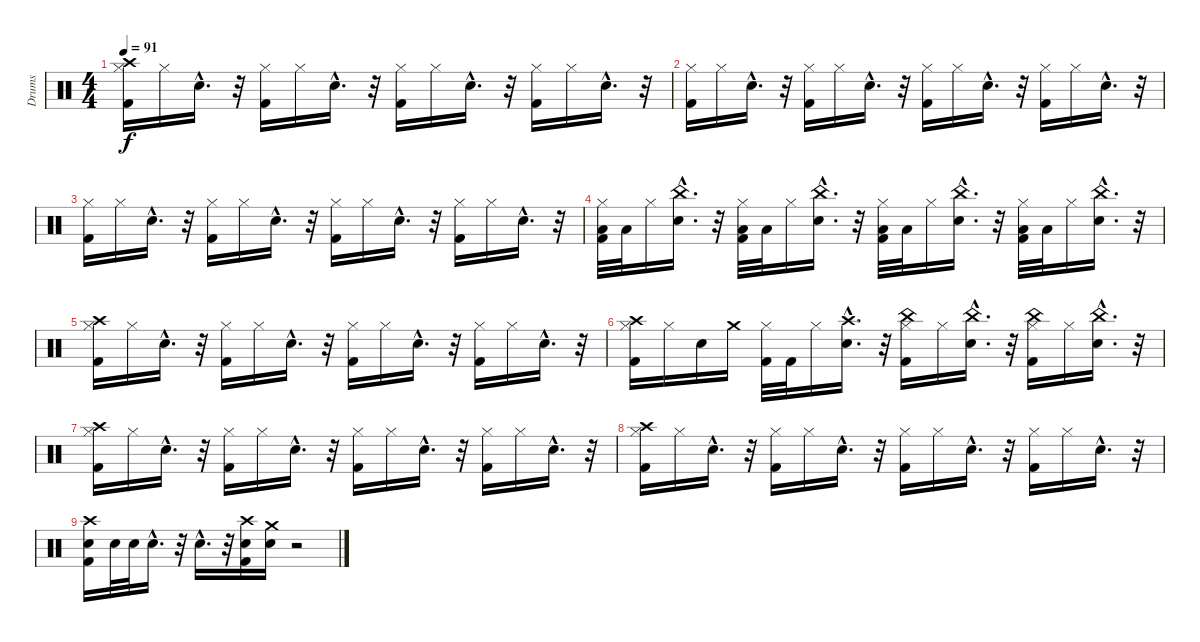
\track ("Drums" "Drums") {instrument percussion}
\staff {score}
\articulation defaults
\ts (4 4)
\tempo 91
\clef neutral
\ks c
("Crash high (hit)" "Kick (hit) 2" "Hi-Hat (closed)").16{dy f} "Hi-Hat (closed)".16 "Snare (hit) 2"{hac}.16{d} r.32 ("Kick (hit) 2" "Hi-Hat (closed)").16 "Hi-Hat (closed)".16 "Snare (hit) 2"{hac}.16{d} r.32 ("Kick (hit) 2" "Hi-Hat (closed)").16 "Hi-Hat (closed)".16 "Snare (hit) 2"{hac}.16{d} r.32 ("Kick (hit) 2" "Hi-Hat (closed)").16 "Hi-Hat (closed)".16 "Snare (hit) 2"{hac}.16{d} r.32 |
("Kick (hit) 2" "Hi-Hat (closed)").16 "Hi-Hat (closed)".16 "Snare (hit) 2"{hac}.16{d} r.32 ("Kick (hit) 2" "Hi-Hat (closed)").16 "Hi-Hat (closed)".16 "Snare (hit) 2"{hac}.16{d} r.32 ("Kick (hit) 2" "Hi-Hat (closed)").16 "Hi-Hat (closed)".16 "Snare (hit) 2"{hac}.16{d} r.32 ("Kick (hit) 2" "Hi-Hat (closed)").16 "Hi-Hat (closed)".16 "Snare (hit) 2"{hac}.16{d} r.32 |
("Kick (hit) 2" "Hi-Hat (closed)").16 "Hi-Hat (closed)".16 "Snare (hit) 2"{hac}.16{d} r.32 ("Kick (hit) 2" "Hi-Hat (closed)").16 "Hi-Hat (closed)".16 "Snare (hit) 2"{hac}.16{d} r.32 ("Kick (hit) 2" "Hi-Hat (closed)").16 "Hi-Hat (closed)".16 "Snare (hit) 2"{hac}.16{d} r.32 ("Kick (hit) 2" "Hi-Hat (closed)").16 "Hi-Hat (closed)".16 "Snare (hit) 2"{hac}.16{d} r.32 |
("Low Floor Tom (hit)" "Kick (hit) 2" "Hi-Hat (closed)").32 "Low Floor Tom (hit)".32 "Hi-Hat (closed)".16 ("Snare (hit) 2"{hac} "China (hit)"{hac}).16{d} r.32 ("Low Floor Tom (hit)" "Kick (hit) 2" "Hi-Hat (closed)").32 "Low Floor Tom (hit)".32 "Hi-Hat (closed)".16 ("China (hit)"{hac} "Snare (hit) 2"{hac}).16{d} r.32 ("Low Floor Tom (hit)" "Kick (hit) 2" "Hi-Hat (closed)").32 "Low Floor Tom (hit)".32 "Hi-Hat (closed)".16 ("China (hit)"{hac} "Snare (hit) 2"{hac}).16{d} r.32 ("Low Floor Tom (hit)" "Kick (hit) 2" "Hi-Hat (closed)").32 "Low Floor Tom (hit)".32 "Hi-Hat (closed)".16 ("China (hit)"{hac} "Snare (hit) 2"{hac}).16{d} r.32 |
("Crash high (hit)" "Kick (hit) 2" "Hi-Hat (closed)").16 "Hi-Hat (closed)".16 "Snare (hit) 2"{hac}.16{d} r.32 ("Kick (hit) 2" "Hi-Hat (closed)").16 "Hi-Hat (closed)".16 "Snare (hit) 2"{hac}.16{d} r.32 ("Kick (hit) 2" "Hi-Hat (closed)").16 "Hi-Hat (closed)".16 "Snare (hit) 2"{hac}.16{d} r.32 ("Kick (hit) 2" "Hi-Hat (closed)").16 "Hi-Hat (closed)".16 "Snare (hit) 2"{hac}.16{d} r.32 |
("Crash high (hit)" "Kick (hit) 2" "Hi-Hat (closed)").16 "Hi-Hat (closed)".16 "Snare (hit) 2".16 "Crash medium (hit)".16 ("Hi-Hat (closed)" "Kick (hit) 2").32 "Kick (hit) 2".32 "Hi-Hat (closed)".16 ("Crash high (hit)"{hac} "Snare (hit) 2"{hac}).16{d} r.32 ("China (hit)" "Kick (hit) 2" "Hi-Hat (closed)").16 "Hi-Hat (closed)".16 ("China (hit)"{hac} "Snare (hit) 2"{hac}).16{d} r.32 ("China (hit)" "Kick (hit) 2" "Hi-Hat (closed)").16 "Hi-Hat (closed)".16 ("China (hit)"{hac} "Snare (hit) 2"{hac}).16{d} r.32 |
("Crash high (hit)" "Kick (hit) 2" "Hi-Hat (closed)").16 "Hi-Hat (closed)".16 "Snare (hit) 2"{hac}.16{d} r.32 ("Kick (hit) 2" "Hi-Hat (closed)").16 "Hi-Hat (closed)".16 "Snare (hit) 2"{hac}.16{d} r.32 ("Kick (hit) 2" "Hi-Hat (closed)").16 "Hi-Hat (closed)".16 "Snare (hit) 2"{hac}.16{d} r.32 ("Kick (hit) 2" "Hi-Hat (closed)").16 "Hi-Hat (closed)".16 "Snare (hit) 2"{hac}.16{d} r.32 |
("Crash high (hit)" "Kick (hit) 2" "Hi-Hat (closed)").16 "Hi-Hat (closed)".16 "Snare (hit) 2"{hac}.16{d} r.32 ("Kick (hit) 2" "Hi-Hat (closed)").16 "Hi-Hat (closed)".16 "Snare (hit) 2"{hac}.16{d} r.32 ("Kick (hit) 2" "Hi-Hat (closed)").16 "Hi-Hat (closed)".16 "Snare (hit) 2"{hac}.16{d} r.32 ("Kick (hit) 2" "Hi-Hat (closed)").16 "Hi-Hat (closed)".16 "Snare (hit) 2"{hac}.16{d} r.32 |
("Crash high (hit)" "Kick (hit) 2" "Snare (hit) 2").16 "Snare (hit) 2".32 "Snare (hit) 2".32 "Snare (hit) 2"{hac}.16{d} r.32 "Snare (hit) 2"{hac}.16{d} r.32 ("Crash high (hit)" "Kick (hit) 2" "Snare (hit) 2").16 ("Crash medium (hit)" "Electric Snare (hit)").16 r.2
